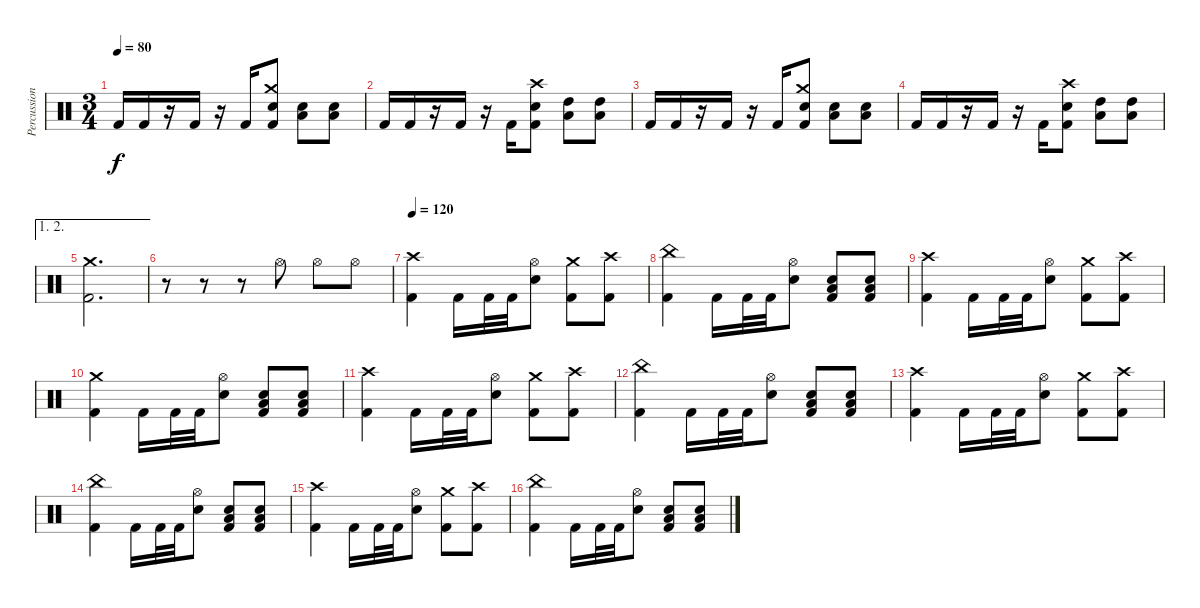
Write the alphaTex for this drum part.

\track ("Percussion" "Percussion") {instrument percussion}
\staff {score}
\articulation defaults
\ts (3 4)
\tempo 80
\clef neutral
\ks c "Kick (hit) 2".16{dy f} "Kick (hit) 2".16
r.16 "Kick (hit) 2".16 r.16 "Kick (hit) 2".16 ("Crash medium (hit)" "Snare (hit) 2" "Kick (hit) 2").8 ("Snare (hit) 2" "Low Floor Tom (hit)").8 ("Snare (hit) 2" "Low Floor Tom (hit)").8 |
"Kick (hit) 2".16 "Kick (hit) 2".16 r.16 "Kick (hit) 2".16 r.16 "Kick (hit) 2".16 ("Crash high (hit)" "Snare (hit) 2" "Kick (hit) 2").8 ("High Tom (hit)" "Low Floor Tom (hit)").8 ("High Tom (hit)" "Low Floor Tom (hit)").8 |
"Kick (hit) 2".16 "Kick (hit) 2".16 r.16 "Kick (hit) 2".16 r.16 "Kick (hit) 2".16 ("Crash medium (hit)" "Snare (hit) 2" "Kick (hit) 2").8 ("Snare (hit) 2" "Low Floor Tom (hit)").8 ("Snare (hit) 2" "Low Floor Tom (hit)").8 |
"Kick (hit) 2".16 "Kick (hit) 2".16 r.16 "Kick (hit) 2".16 r.16 "Kick (hit) 2".16 ("Crash high (hit)" "Snare (hit) 2" "Kick (hit) 2").8 ("High Tom (hit)" "Low Floor Tom (hit)").8 ("High Tom (hit)" "Low Floor Tom (hit)").8 |
\ae (1 2)
("Crash medium (hit)" "Kick (hit) 2").2{d} |
r.8 r.8 r.8 "Hi-Hat (open)".8 "Hi-Hat (open)".8 "Hi-Hat (open)".8 |
\tempo 120
("Crash high (hit)" "Kick (hit) 2").4 "Kick (hit) 2".16 "Kick (hit) 2".32 "Kick (hit) 2".32 ("Hi-Hat (open)" "Snare (hit) 2").8 ("Crash medium (hit)" "Kick (hit) 2").8 ("Crash high (hit)" "Kick (hit) 2").8 |
("China (hit)" "Kick (hit) 2").4 "Kick (hit) 2".16 "Kick (hit) 2".32 "Kick (hit) 2".32 ("Hi-Hat (open)" "Snare (hit) 2").8 ("Snare (hit) 2" "Low Floor Tom (hit)" "Kick (hit) 2").8 ("Snare (hit) 2" "Low Floor Tom (hit)" "Kick (hit) 2").8 |
("Crash high (hit)" "Kick (hit) 2").4 "Kick (hit) 2".16 "Kick (hit) 2".32 "Kick (hit) 2".32 ("Hi-Hat (open)" "Snare (hit) 2").8 ("Crash medium (hit)" "Kick (hit) 2").8 ("Crash high (hit)" "Kick (hit) 2").8 |
("Crash medium (hit)" "Kick (hit) 2").4 "Kick (hit) 2".16 "Kick (hit) 2".32 "Kick (hit) 2".32 ("Hi-Hat (open)" "Snare (hit) 2").8 ("Snare (hit) 2" "Low Floor Tom (hit)" "Kick (hit) 2").8 ("Snare (hit) 2" "Low Floor Tom (hit)" "Kick (hit) 2").8 |
("Crash high (hit)" "Kick (hit) 2").4 "Kick (hit) 2".16 "Kick (hit) 2".32 "Kick (hit) 2".32 ("Hi-Hat (open)" "Snare (hit) 2").8 ("Crash medium (hit)" "Kick (hit) 2").8 ("Crash high (hit)" "Kick (hit) 2").8 |
("China (hit)" "Kick (hit) 2").4 "Kick (hit) 2".16 "Kick (hit) 2".32 "Kick (hit) 2".32 ("Hi-Hat (open)" "Snare (hit) 2").8 ("Snare (hit) 2" "Low Floor Tom (hit)" "Kick (hit) 2").8 ("Snare (hit) 2" "Low Floor Tom (hit)" "Kick (hit) 2").8 |
("Crash high (hit)" "Kick (hit) 2").4 "Kick (hit) 2".16 "Kick (hit) 2".32 "Kick (hit) 2".32 ("Hi-Hat (open)" "Snare (hit) 2").8 ("Crash medium (hit)" "Kick (hit) 2").8 ("Crash high (hit)" "Kick (hit) 2").8 |
("China (hit)" "Kick (hit) 2").4 "Kick (hit) 2".16 "Kick (hit) 2".32 "Kick (hit) 2".32 ("Hi-Hat (open)" "Snare (hit) 2").8 ("Snare (hit) 2" "Low Floor Tom (hit)" "Kick (hit) 2").8 ("Snare (hit) 2" "Low Floor Tom (hit)" "Kick (hit) 2").8 |
("Crash high (hit)" "Kick (hit) 2").4 "Kick (hit) 2".16 "Kick (hit) 2".32 "Kick (hit) 2".32 ("Hi-Hat (open)" "Snare (hit) 2").8 ("Crash medium (hit)" "Kick (hit) 2").8 ("Crash high (hit)" "Kick (hit) 2").8 |
("China (hit)" "Kick (hit) 2").4 "Kick (hit) 2".16 "Kick (hit) 2".32 "Kick (hit) 2".32 ("Hi-Hat (open)" "Snare (hit) 2").8 ("Snare (hit) 2" "Low Floor Tom (hit)" "Kick (hit) 2").8 ("Snare (hit) 2" "Low Floor Tom (hit)" "Kick (hit) 2").8
